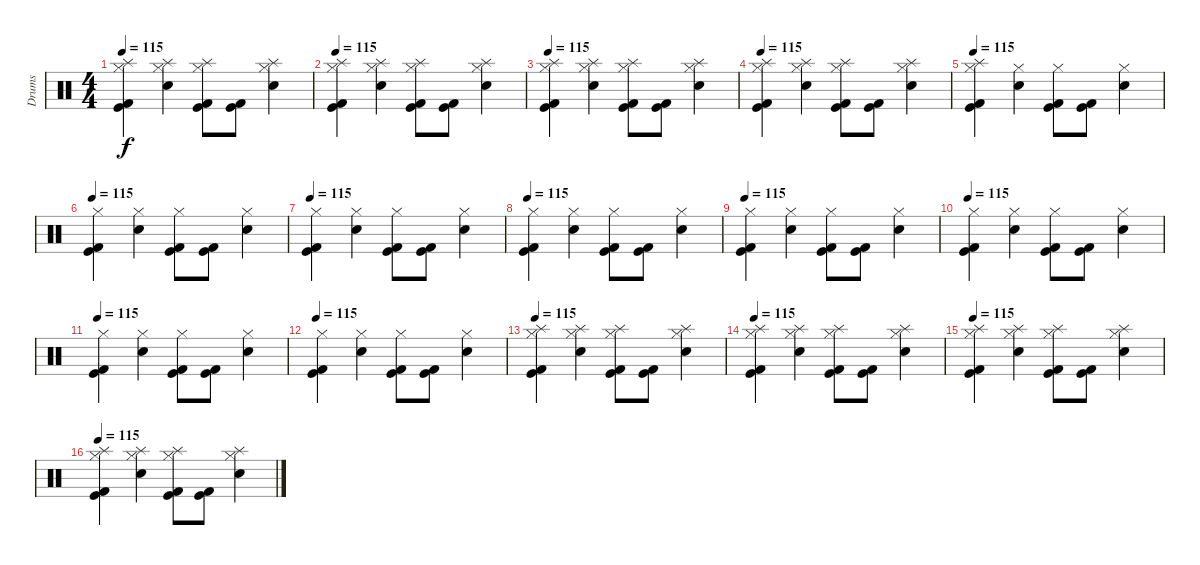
\track ("Drums" "Drums") {instrument percussion}
\staff {score}
\articulation defaults
\ts (4 4)
\tempo 115
\clef neutral
\ks c
("Splash (hit)" "Kick (hit) 2" "Kick (hit)" "Hi-Hat (closed)").4{dy f} ("Splash (hit)" "Hi-Hat (closed)" "Electric Snare (hit)").4 ("Splash (hit)" "Kick (hit) 2" "Kick (hit)" "Hi-Hat (closed)").8 ("Kick (hit) 2" "Kick (hit)").8 ("Splash (hit)" "Electric Snare (hit)" "Hi-Hat (closed)").4 |
\tempo 115
("Splash (hit)" "Kick (hit) 2" "Kick (hit)" "Hi-Hat (closed)").4 ("Splash (hit)" "Hi-Hat (closed)" "Electric Snare (hit)").4 ("Splash (hit)" "Kick (hit) 2" "Kick (hit)" "Hi-Hat (closed)").8 ("Kick (hit) 2" "Kick (hit)").8 ("Splash (hit)" "Electric Snare (hit)" "Hi-Hat (closed)").4 |
\tempo 115
("Splash (hit)" "Kick (hit) 2" "Kick (hit)" "Hi-Hat (closed)").4 ("Splash (hit)" "Hi-Hat (closed)" "Electric Snare (hit)").4 ("Splash (hit)" "Kick (hit) 2" "Kick (hit)" "Hi-Hat (closed)").8 ("Kick (hit) 2" "Kick (hit)").8 ("Splash (hit)" "Electric Snare (hit)" "Hi-Hat (closed)").4 |
\tempo 115
("Splash (hit)" "Kick (hit) 2" "Kick (hit)" "Hi-Hat (closed)").4 ("Splash (hit)" "Hi-Hat (closed)" "Electric Snare (hit)").4 ("Splash (hit)" "Kick (hit) 2" "Kick (hit)" "Hi-Hat (closed)").8 ("Kick (hit) 2" "Kick (hit)").8 ("Splash (hit)" "Electric Snare (hit)" "Hi-Hat (closed)").4 |
\tempo 115
("Splash (hit)" "Kick (hit) 2" "Kick (hit)" "Hi-Hat (closed)").4 ("Hi-Hat (closed)" "Electric Snare (hit)").4 ("Kick (hit) 2" "Kick (hit)" "Hi-Hat (closed)").8 ("Kick (hit) 2" "Kick (hit)").8 ("Electric Snare (hit)" "Hi-Hat (closed)").4 |
\tempo 115
("Kick (hit) 2" "Kick (hit)" "Hi-Hat (closed)").4 ("Hi-Hat (closed)" "Electric Snare (hit)").4 ("Kick (hit) 2" "Kick (hit)" "Hi-Hat (closed)").8 ("Kick (hit) 2" "Kick (hit)").8 ("Electric Snare (hit)" "Hi-Hat (closed)").4 |
\tempo 115
("Kick (hit) 2" "Kick (hit)" "Hi-Hat (closed)").4 ("Hi-Hat (closed)" "Electric Snare (hit)").4 ("Kick (hit) 2" "Kick (hit)" "Hi-Hat (closed)").8 ("Kick (hit) 2" "Kick (hit)").8 ("Electric Snare (hit)" "Hi-Hat (closed)").4 |
\tempo 115
("Kick (hit) 2" "Kick (hit)" "Hi-Hat (closed)").4 ("Hi-Hat (closed)" "Electric Snare (hit)").4 ("Kick (hit) 2" "Kick (hit)" "Hi-Hat (closed)").8 ("Kick (hit) 2" "Kick (hit)").8 ("Electric Snare (hit)" "Hi-Hat (closed)").4 |
\tempo 115
("Kick (hit) 2" "Kick (hit)" "Hi-Hat (closed)").4 ("Hi-Hat (closed)" "Electric Snare (hit)").4 ("Kick (hit) 2" "Kick (hit)" "Hi-Hat (closed)").8 ("Kick (hit) 2" "Kick (hit)").8 ("Electric Snare (hit)" "Hi-Hat (closed)").4 |
\tempo 115
("Kick (hit) 2" "Kick (hit)" "Hi-Hat (closed)").4 ("Hi-Hat (closed)" "Electric Snare (hit)").4 ("Kick (hit) 2" "Kick (hit)" "Hi-Hat (closed)").8 ("Kick (hit) 2" "Kick (hit)").8 ("Electric Snare (hit)" "Hi-Hat (closed)").4 |
\tempo 115
("Kick (hit) 2" "Kick (hit)" "Hi-Hat (closed)").4 ("Hi-Hat (closed)" "Electric Snare (hit)").4 ("Kick (hit) 2" "Kick (hit)" "Hi-Hat (closed)").8 ("Kick (hit) 2" "Kick (hit)").8 ("Electric Snare (hit)" "Hi-Hat (closed)").4 |
\tempo 115
("Kick (hit) 2" "Kick (hit)" "Hi-Hat (closed)").4 ("Hi-Hat (closed)" "Electric Snare (hit)").4 ("Kick (hit) 2" "Kick (hit)" "Hi-Hat (closed)").8 ("Kick (hit) 2" "Kick (hit)").8 ("Electric Snare (hit)" "Hi-Hat (closed)").4 |
\tempo 115
("Splash (hit)" "Kick (hit) 2" "Kick (hit)" "Hi-Hat (closed)").4 ("Splash (hit)" "Hi-Hat (closed)" "Electric Snare (hit)").4 ("Splash (hit)" "Kick (hit) 2" "Kick (hit)" "Hi-Hat (closed)").8 ("Kick (hit) 2" "Kick (hit)").8 ("Splash (hit)" "Electric Snare (hit)" "Hi-Hat (closed)").4 |
\tempo 115
("Splash (hit)" "Kick (hit) 2" "Kick (hit)" "Hi-Hat (closed)").4 ("Splash (hit)" "Hi-Hat (closed)" "Electric Snare (hit)").4 ("Splash (hit)" "Kick (hit) 2" "Kick (hit)" "Hi-Hat (closed)").8 ("Kick (hit) 2" "Kick (hit)").8 ("Splash (hit)" "Electric Snare (hit)" "Hi-Hat (closed)").4 |
\tempo 115
("Splash (hit)" "Kick (hit) 2" "Kick (hit)" "Hi-Hat (closed)").4 ("Splash (hit)" "Hi-Hat (closed)" "Electric Snare (hit)").4 ("Splash (hit)" "Kick (hit) 2" "Kick (hit)" "Hi-Hat (closed)").8 ("Kick (hit) 2" "Kick (hit)").8 ("Splash (hit)" "Electric Snare (hit)" "Hi-Hat (closed)").4 |
\tempo 115
("Splash (hit)" "Kick (hit) 2" "Kick (hit)" "Hi-Hat (closed)").4 ("Splash (hit)" "Hi-Hat (closed)" "Electric Snare (hit)").4 ("Splash (hit)" "Kick (hit) 2" "Kick (hit)" "Hi-Hat (closed)").8 ("Kick (hit) 2" "Kick (hit)").8 ("Splash (hit)" "Electric Snare (hit)" "Hi-Hat (closed)").4
